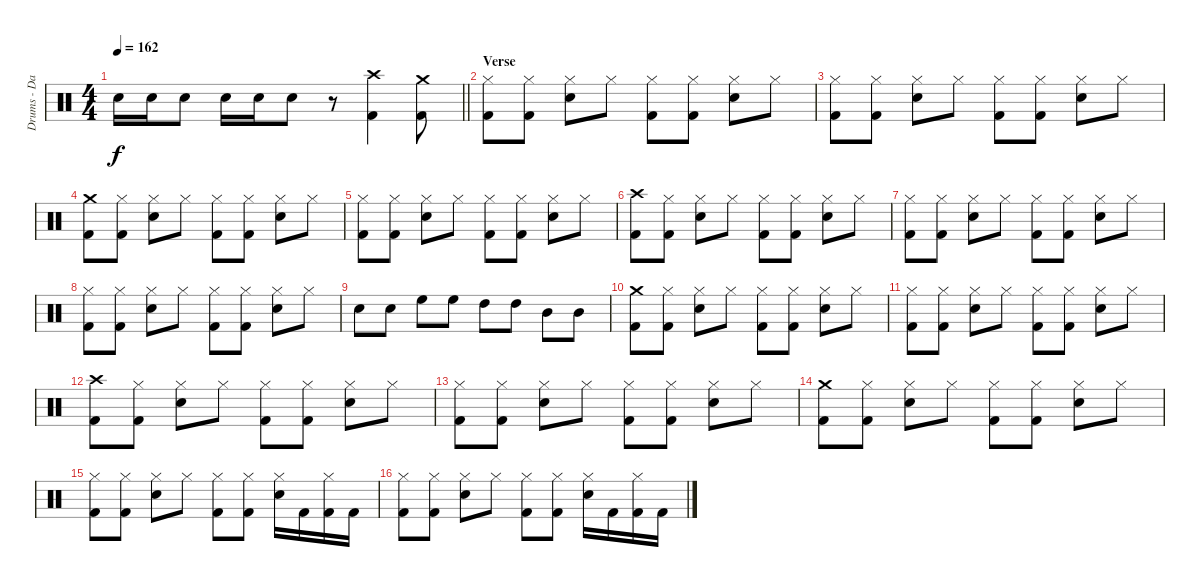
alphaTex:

\track ("Drums - David Holland" "Drums - Da") {instrument percussion}
\staff {score}
\articulation defaults
\ts (4 4)
\tempo 162
\clef neutral
\barLineRight lightlight
\ks c "Snare (hit) 2".16{dy f} "Snare (hit) 2".16 "Snare (hit) 2".8 "Snare (hit) 2".16 "Snare (hit) 2".16 "Snare (hit) 2".8
r.8 ("Crash high (hit)" "Kick (hit) 2").4 ("Crash medium (hit)" "Kick (hit) 2").8 |
\section ("" "Verse")
("Hi-Hat (closed)" "Kick (hit) 2").8 ("Hi-Hat (closed)" "Kick (hit) 2").8 ("Hi-Hat (closed)" "Snare (hit) 2").8 "Hi-Hat (closed)".8 ("Hi-Hat (closed)" "Kick (hit) 2").8 ("Hi-Hat (closed)" "Kick (hit) 2").8 ("Hi-Hat (closed)" "Snare (hit) 2").8 "Hi-Hat (closed)".8 |
("Hi-Hat (closed)" "Kick (hit) 2").8 ("Hi-Hat (closed)" "Kick (hit) 2").8 ("Hi-Hat (closed)" "Snare (hit) 2").8 "Hi-Hat (closed)".8 ("Hi-Hat (closed)" "Kick (hit) 2").8 ("Hi-Hat (closed)" "Kick (hit) 2").8 ("Hi-Hat (closed)" "Snare (hit) 2").8 "Hi-Hat (closed)".8 |
("Crash medium (hit)" "Kick (hit) 2").8 ("Hi-Hat (closed)" "Kick (hit) 2").8 ("Hi-Hat (closed)" "Snare (hit) 2").8 "Hi-Hat (closed)".8 ("Hi-Hat (closed)" "Kick (hit) 2").8 ("Hi-Hat (closed)" "Kick (hit) 2").8 ("Hi-Hat (closed)" "Snare (hit) 2").8 "Hi-Hat (closed)".8 |
("Hi-Hat (closed)" "Kick (hit) 2").8 ("Hi-Hat (closed)" "Kick (hit) 2").8 ("Hi-Hat (closed)" "Snare (hit) 2").8 "Hi-Hat (closed)".8 ("Hi-Hat (closed)" "Kick (hit) 2").8 ("Hi-Hat (closed)" "Kick (hit) 2").8 ("Hi-Hat (closed)" "Snare (hit) 2").8 "Hi-Hat (closed)".8 |
("Crash high (hit)" "Kick (hit) 2").8 ("Hi-Hat (closed)" "Kick (hit) 2").8 ("Hi-Hat (closed)" "Snare (hit) 2").8 "Hi-Hat (closed)".8 ("Hi-Hat (closed)" "Kick (hit) 2").8 ("Hi-Hat (closed)" "Kick (hit) 2").8 ("Hi-Hat (closed)" "Snare (hit) 2").8 "Hi-Hat (closed)".8 |
("Hi-Hat (closed)" "Kick (hit) 2").8 ("Hi-Hat (closed)" "Kick (hit) 2").8 ("Hi-Hat (closed)" "Snare (hit) 2").8 "Hi-Hat (closed)".8 ("Hi-Hat (closed)" "Kick (hit) 2").8 ("Hi-Hat (closed)" "Kick (hit) 2").8 ("Hi-Hat (closed)" "Snare (hit) 2").8 "Hi-Hat (closed)".8 |
("Hi-Hat (closed)" "Kick (hit) 2").8 ("Hi-Hat (closed)" "Kick (hit) 2").8 ("Hi-Hat (closed)" "Snare (hit) 2").8 "Hi-Hat (closed)".8 ("Hi-Hat (closed)" "Kick (hit) 2").8 ("Hi-Hat (closed)" "Kick (hit) 2").8 ("Hi-Hat (closed)" "Snare (hit) 2").8 "Hi-Hat (closed)".8 |
"Snare (hit) 2".8 "Snare (hit) 2".8 "High Floor Tom (hit)".8 "High Floor Tom (hit)".8 "High Tom (hit)".8 "High Tom (hit)".8 "Mid Tom (hit)".8 "Mid Tom (hit)".8 |
("Crash medium (hit)" "Kick (hit) 2").8 ("Hi-Hat (closed)" "Kick (hit) 2").8 ("Hi-Hat (closed)" "Snare (hit) 2").8 "Hi-Hat (closed)".8 ("Hi-Hat (closed)" "Kick (hit) 2").8 ("Hi-Hat (closed)" "Kick (hit) 2").8 ("Hi-Hat (closed)" "Snare (hit) 2").8 "Hi-Hat (closed)".8 |
("Hi-Hat (closed)" "Kick (hit) 2").8 ("Hi-Hat (closed)" "Kick (hit) 2").8 ("Hi-Hat (closed)" "Snare (hit) 2").8 "Hi-Hat (closed)".8 ("Hi-Hat (closed)" "Kick (hit) 2").8 ("Hi-Hat (closed)" "Kick (hit) 2").8 ("Hi-Hat (closed)" "Snare (hit) 2").8 "Hi-Hat (closed)".8 |
("Crash high (hit)" "Kick (hit) 2").8 ("Hi-Hat (closed)" "Kick (hit) 2").8 ("Hi-Hat (closed)" "Snare (hit) 2").8 "Hi-Hat (closed)".8 ("Hi-Hat (closed)" "Kick (hit) 2").8 ("Hi-Hat (closed)" "Kick (hit) 2").8 ("Hi-Hat (closed)" "Snare (hit) 2").8 "Hi-Hat (closed)".8 |
("Hi-Hat (closed)" "Kick (hit) 2").8 ("Hi-Hat (closed)" "Kick (hit) 2").8 ("Hi-Hat (closed)" "Snare (hit) 2").8 "Hi-Hat (closed)".8 ("Hi-Hat (closed)" "Kick (hit) 2").8 ("Hi-Hat (closed)" "Kick (hit) 2").8 ("Hi-Hat (closed)" "Snare (hit) 2").8 "Hi-Hat (closed)".8 |
("Crash medium (hit)" "Kick (hit) 2").8 ("Hi-Hat (closed)" "Kick (hit) 2").8 ("Hi-Hat (closed)" "Snare (hit) 2").8 "Hi-Hat (closed)".8 ("Hi-Hat (closed)" "Kick (hit) 2").8 ("Hi-Hat (closed)" "Kick (hit) 2").8 ("Hi-Hat (closed)" "Snare (hit) 2").8 "Hi-Hat (closed)".8 |
("Hi-Hat (closed)" "Kick (hit) 2").8 ("Hi-Hat (closed)" "Kick (hit) 2").8 ("Hi-Hat (closed)" "Snare (hit) 2").8 "Hi-Hat (closed)".8 ("Hi-Hat (closed)" "Kick (hit) 2").8 ("Hi-Hat (closed)" "Kick (hit) 2").8 ("Hi-Hat (closed)" "Snare (hit) 2").16 "Kick (hit) 2".16 ("Hi-Hat (closed)" "Kick (hit) 2").16 "Kick (hit) 2".16 |
("Hi-Hat (closed)" "Kick (hit) 2").8 ("Hi-Hat (closed)" "Kick (hit) 2").8 ("Hi-Hat (closed)" "Snare (hit) 2").8 "Hi-Hat (closed)".8 ("Hi-Hat (closed)" "Kick (hit) 2").8 ("Hi-Hat (closed)" "Kick (hit) 2").8 ("Hi-Hat (closed)" "Snare (hit) 2").16 "Kick (hit) 2".16 ("Hi-Hat (closed)" "Kick (hit) 2").16 "Kick (hit) 2".16
